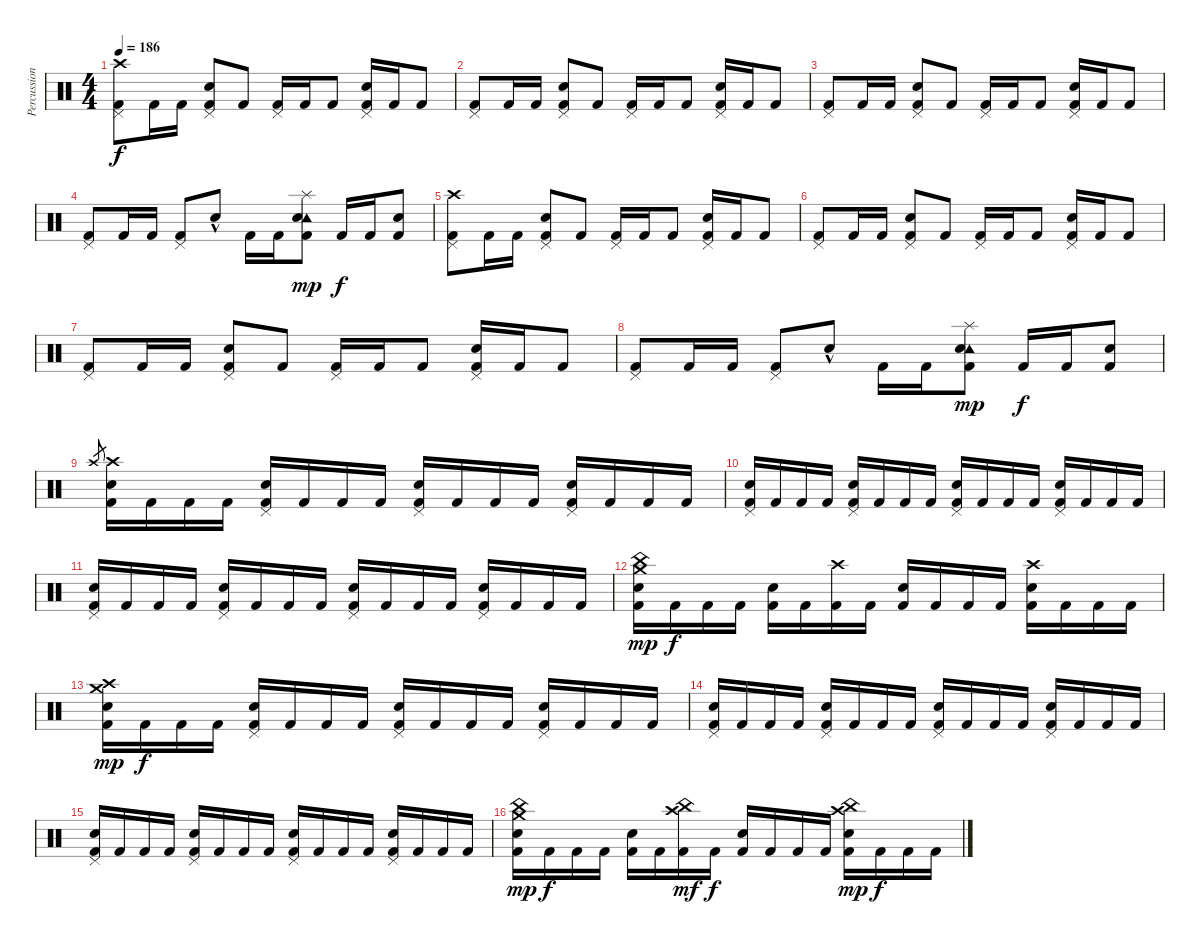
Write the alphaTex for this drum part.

\track ("Percussion" "Percussion") {instrument percussion}
\staff {score}
\articulation defaults
\ts (4 4)
\tempo 186
\clef neutral
\ks c
("Crash high (hit)" "Pedal Hi-Hat (hit)" "Kick (hit) 2").8{dy f} "Kick (hit) 2".16 "Kick (hit) 2".16 ("Electric Snare (hit)" "Pedal Hi-Hat (hit)" "Kick (hit) 2").8 "Kick (hit) 2".8 ("Pedal Hi-Hat (hit)" "Kick (hit) 2").16 "Kick (hit) 2".16 "Kick (hit) 2".8 ("Electric Snare (hit)" "Pedal Hi-Hat (hit)" "Kick (hit) 2").16 "Kick (hit) 2".16 "Kick (hit) 2".8 |
("Pedal Hi-Hat (hit)" "Kick (hit) 2").8 "Kick (hit) 2".16 "Kick (hit) 2".16 ("Electric Snare (hit)" "Pedal Hi-Hat (hit)" "Kick (hit) 2").8 "Kick (hit) 2".8 ("Pedal Hi-Hat (hit)" "Kick (hit) 2").16 "Kick (hit) 2".16 "Kick (hit) 2".8 ("Electric Snare (hit)" "Pedal Hi-Hat (hit)" "Kick (hit) 2").16 "Kick (hit) 2".16 "Kick (hit) 2".8 |
("Pedal Hi-Hat (hit)" "Kick (hit) 2").8 "Kick (hit) 2".16 "Kick (hit) 2".16 ("Electric Snare (hit)" "Pedal Hi-Hat (hit)" "Kick (hit) 2").8 "Kick (hit) 2".8 ("Pedal Hi-Hat (hit)" "Kick (hit) 2").16 "Kick (hit) 2".16 "Kick (hit) 2".8 ("Electric Snare (hit)" "Pedal Hi-Hat (hit)" "Kick (hit) 2").16 "Kick (hit) 2".16 "Kick (hit) 2".8 |
("Pedal Hi-Hat (hit)" "Kick (hit) 2").8 "Kick (hit) 2".16 "Kick (hit) 2".16 ("Pedal Hi-Hat (hit)" "Kick (hit) 2").8 "Electric Snare (hit)"{hac}.8 "Kick (hit) 2".16 "Kick (hit) 2".16 ("Tambourine (hit)" "Splash (hit)" "Electric Snare (hit)" "Kick (hit) 2").8{dy mp} "Kick (hit) 2".16{dy f} "Kick (hit) 2".16 ("Electric Snare (hit)" "Kick (hit) 2").8 |
("Crash high (hit)" "Pedal Hi-Hat (hit)" "Kick (hit) 2").8 "Kick (hit) 2".16 "Kick (hit) 2".16 ("Electric Snare (hit)" "Pedal Hi-Hat (hit)" "Kick (hit) 2").8 "Kick (hit) 2".8 ("Pedal Hi-Hat (hit)" "Kick (hit) 2").16 "Kick (hit) 2".16 "Kick (hit) 2".8 ("Electric Snare (hit)" "Pedal Hi-Hat (hit)" "Kick (hit) 2").16 "Kick (hit) 2".16 "Kick (hit) 2".8 |
("Pedal Hi-Hat (hit)" "Kick (hit) 2").8 "Kick (hit) 2".16 "Kick (hit) 2".16 ("Electric Snare (hit)" "Pedal Hi-Hat (hit)" "Kick (hit) 2").8 "Kick (hit) 2".8 ("Pedal Hi-Hat (hit)" "Kick (hit) 2").16 "Kick (hit) 2".16 "Kick (hit) 2".8 ("Electric Snare (hit)" "Pedal Hi-Hat (hit)" "Kick (hit) 2").16 "Kick (hit) 2".16 "Kick (hit) 2".8 |
("Pedal Hi-Hat (hit)" "Kick (hit) 2").8 "Kick (hit) 2".16 "Kick (hit) 2".16 ("Electric Snare (hit)" "Pedal Hi-Hat (hit)" "Kick (hit) 2").8 "Kick (hit) 2".8 ("Pedal Hi-Hat (hit)" "Kick (hit) 2").16 "Kick (hit) 2".16 "Kick (hit) 2".8 ("Electric Snare (hit)" "Pedal Hi-Hat (hit)" "Kick (hit) 2").16 "Kick (hit) 2".16 "Kick (hit) 2".8 |
("Pedal Hi-Hat (hit)" "Kick (hit) 2").8 "Kick (hit) 2".16 "Kick (hit) 2".16 ("Pedal Hi-Hat (hit)" "Kick (hit) 2").8 "Electric Snare (hit)"{hac}.8 "Kick (hit) 2".16 "Kick (hit) 2".16 ("Tambourine (hit)" "Splash (hit)" "Electric Snare (hit)" "Kick (hit) 2").8{dy mp} "Kick (hit) 2".16{dy f} "Kick (hit) 2".16 ("Electric Snare (hit)" "Kick (hit) 2").8 |
"Crash high (hit)".8{gr} ("Crash high (hit)" "Electric Snare (hit)" "Kick (hit) 2").16 "Kick (hit) 2".16 "Kick (hit) 2".16 "Kick (hit) 2".16 ("Pedal Hi-Hat (hit)" "Electric Snare (hit)" "Kick (hit) 2").16 "Kick (hit) 2".16 "Kick (hit) 2".16 "Kick (hit) 2".16 ("Pedal Hi-Hat (hit)" "Electric Snare (hit)" "Kick (hit) 2").16 "Kick (hit) 2".16 "Kick (hit) 2".16 "Kick (hit) 2".16 ("Pedal Hi-Hat (hit)" "Electric Snare (hit)" "Kick (hit) 2").16 "Kick (hit) 2".16 "Kick (hit) 2".16 "Kick (hit) 2".16 |
("Pedal Hi-Hat (hit)" "Electric Snare (hit)" "Kick (hit) 2").16 "Kick (hit) 2".16 "Kick (hit) 2".16 "Kick (hit) 2".16 ("Pedal Hi-Hat (hit)" "Electric Snare (hit)" "Kick (hit) 2").16 "Kick (hit) 2".16 "Kick (hit) 2".16 "Kick (hit) 2".16 ("Pedal Hi-Hat (hit)" "Electric Snare (hit)" "Kick (hit) 2").16 "Kick (hit) 2".16 "Kick (hit) 2".16 "Kick (hit) 2".16 ("Pedal Hi-Hat (hit)" "Electric Snare (hit)" "Kick (hit) 2").16 "Kick (hit) 2".16 "Kick (hit) 2".16 "Kick (hit) 2".16 |
("Pedal Hi-Hat (hit)" "Electric Snare (hit)" "Kick (hit) 2").16 "Kick (hit) 2".16 "Kick (hit) 2".16 "Kick (hit) 2".16 ("Pedal Hi-Hat (hit)" "Electric Snare (hit)" "Kick (hit) 2").16 "Kick (hit) 2".16 "Kick (hit) 2".16 "Kick (hit) 2".16 ("Pedal Hi-Hat (hit)" "Electric Snare (hit)" "Kick (hit) 2").16 "Kick (hit) 2".16 "Kick (hit) 2".16 "Kick (hit) 2".16 ("Pedal Hi-Hat (hit)" "Electric Snare (hit)" "Kick (hit) 2").16 "Kick (hit) 2".16 "Kick (hit) 2".16 "Kick (hit) 2".16 |
("Crash medium (hit)" "China (hit)" "Electric Snare (hit)" "Kick (hit) 2").16{dy mp} "Kick (hit) 2".16{dy f} "Kick (hit) 2".16 "Kick (hit) 2".16 ("Electric Snare (hit)" "Kick (hit) 2").16 "Kick (hit) 2".16 ("Crash high (hit)" "Kick (hit) 2").16 "Kick (hit) 2".16 ("Electric Snare (hit)" "Kick (hit) 2").16 "Kick (hit) 2".16 "Kick (hit) 2".16 "Kick (hit) 2".16 ("Crash high (hit)" "Electric Snare (hit)" "Kick (hit) 2").16 "Kick (hit) 2".16 "Kick (hit) 2".16 "Kick (hit) 2".16 |
("Crash high (hit)" "Crash medium (hit)" "Electric Snare (hit)" "Kick (hit) 2").16{dy mp} "Kick (hit) 2".16{dy f} "Kick (hit) 2".16 "Kick (hit) 2".16 ("Pedal Hi-Hat (hit)" "Electric Snare (hit)" "Kick (hit) 2").16 "Kick (hit) 2".16 "Kick (hit) 2".16 "Kick (hit) 2".16 ("Pedal Hi-Hat (hit)" "Electric Snare (hit)" "Kick (hit) 2").16 "Kick (hit) 2".16 "Kick (hit) 2".16 "Kick (hit) 2".16 ("Pedal Hi-Hat (hit)" "Electric Snare (hit)" "Kick (hit) 2").16 "Kick (hit) 2".16 "Kick (hit) 2".16 "Kick (hit) 2".16 |
("Pedal Hi-Hat (hit)" "Electric Snare (hit)" "Kick (hit) 2").16 "Kick (hit) 2".16 "Kick (hit) 2".16 "Kick (hit) 2".16 ("Pedal Hi-Hat (hit)" "Electric Snare (hit)" "Kick (hit) 2").16 "Kick (hit) 2".16 "Kick (hit) 2".16 "Kick (hit) 2".16 ("Pedal Hi-Hat (hit)" "Electric Snare (hit)" "Kick (hit) 2").16 "Kick (hit) 2".16 "Kick (hit) 2".16 "Kick (hit) 2".16 ("Pedal Hi-Hat (hit)" "Electric Snare (hit)" "Kick (hit) 2").16 "Kick (hit) 2".16 "Kick (hit) 2".16 "Kick (hit) 2".16 |
("Pedal Hi-Hat (hit)" "Electric Snare (hit)" "Kick (hit) 2").16 "Kick (hit) 2".16 "Kick (hit) 2".16 "Kick (hit) 2".16 ("Pedal Hi-Hat (hit)" "Electric Snare (hit)" "Kick (hit) 2").16 "Kick (hit) 2".16 "Kick (hit) 2".16 "Kick (hit) 2".16 ("Pedal Hi-Hat (hit)" "Electric Snare (hit)" "Kick (hit) 2").16 "Kick (hit) 2".16 "Kick (hit) 2".16 "Kick (hit) 2".16 ("Pedal Hi-Hat (hit)" "Electric Snare (hit)" "Kick (hit) 2").16 "Kick (hit) 2".16 "Kick (hit) 2".16 "Kick (hit) 2".16 |
("Crash medium (hit)" "China (hit)" "Electric Snare (hit)" "Kick (hit) 2").16{dy mp} "Kick (hit) 2".16{dy f} "Kick (hit) 2".16 "Kick (hit) 2".16 ("Electric Snare (hit)" "Kick (hit) 2").16 "Kick (hit) 2".16 ("Crash high (hit)" "China (hit)" "Kick (hit) 2").16{dy mf} "Kick (hit) 2".16{dy f} ("Electric Snare (hit)" "Kick (hit) 2").16 "Kick (hit) 2".16 "Kick (hit) 2".16 "Kick (hit) 2".16 ("Crash high (hit)" "China (hit)" "Electric Snare (hit)" "Kick (hit) 2").16{dy mp} "Kick (hit) 2".16{dy f} "Kick (hit) 2".16 "Kick (hit) 2".16
